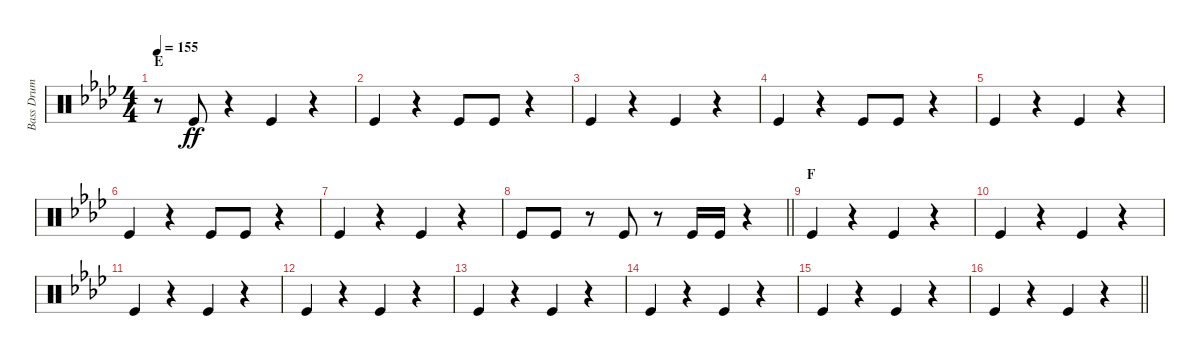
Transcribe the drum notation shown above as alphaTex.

\track ("Bass Drum" "Bass Drum") {instrument percussion}
\staff {score}
\articulation defaults
\ts (4 4)
\section ("" "E")
\tempo 155
\clef neutral
\ks ab
r.8{dy ff} "Kick (hit)".8 r.4 "Kick (hit)".4 r.4 |
"Kick (hit)".4 r.4 "Kick (hit)".8 "Kick (hit)".8 r.4 |
"Kick (hit)".4 r.4 "Kick (hit)".4 r.4 |
"Kick (hit)".4 r.4 "Kick (hit)".8 "Kick (hit)".8 r.4 |
"Kick (hit)".4 r.4 "Kick (hit)".4 r.4 |
"Kick (hit)".4 r.4 "Kick (hit)".8 "Kick (hit)".8 r.4 |
"Kick (hit)".4 r.4 "Kick (hit)".4 r.4 |
\barLineRight lightlight "Kick (hit)".8 "Kick (hit)".8
r.8 "Kick (hit)".8 r.8 "Kick (hit)".16 "Kick (hit)".16 r.4 |
\section ("" "F")
"Kick (hit)".4 r.4 "Kick (hit)".4 r.4 |
"Kick (hit)".4 r.4 "Kick (hit)".4 r.4 |
"Kick (hit)".4 r.4 "Kick (hit)".4 r.4 |
"Kick (hit)".4 r.4 "Kick (hit)".4 r.4 |
"Kick (hit)".4 r.4 "Kick (hit)".4 r.4 |
"Kick (hit)".4 r.4 "Kick (hit)".4 r.4 |
"Kick (hit)".4 r.4 "Kick (hit)".4 r.4 |
\barLineRight lightlight "Kick (hit)".4
r.4 "Kick (hit)".4 r.4
